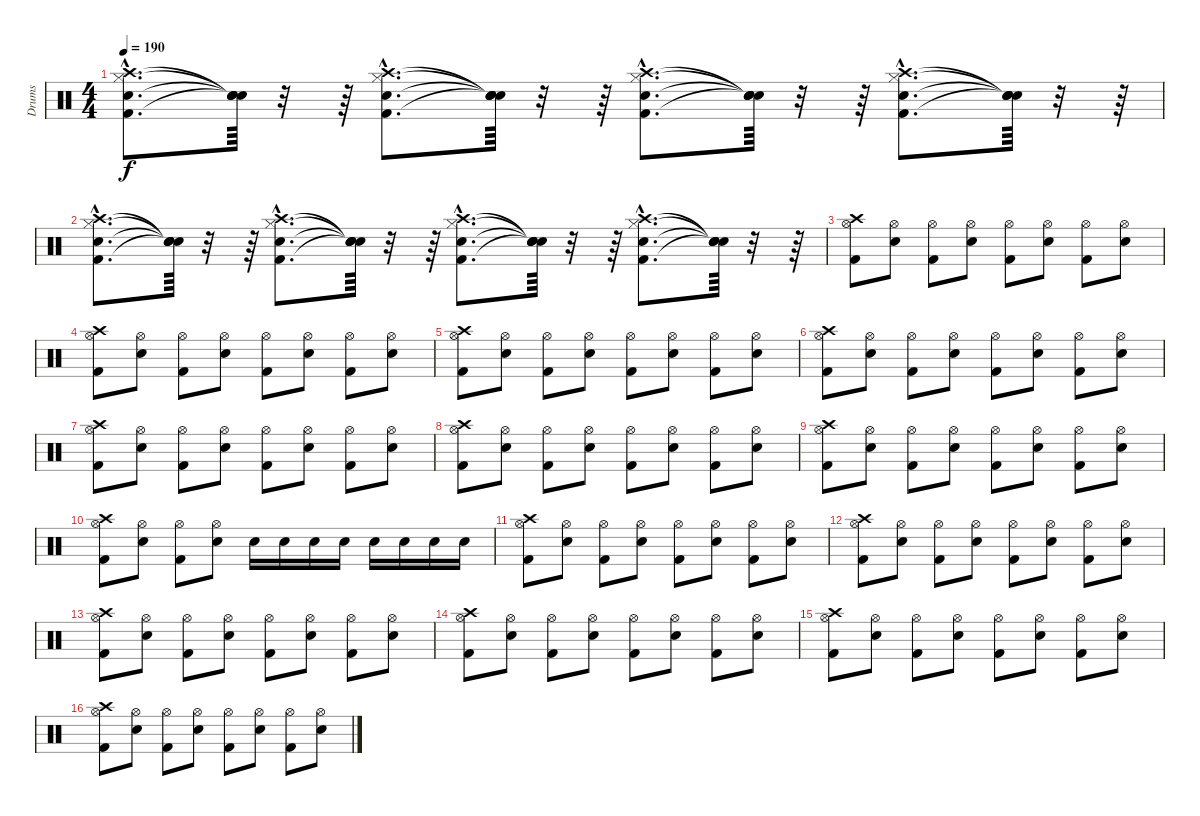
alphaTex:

\track ("Drums" "Drums") {instrument percussion}
\staff {score}
\articulation defaults
\ts (4 4)
\tempo 190
\clef neutral
\ks c
("Kick (hit) 2"{hac} "Snare (hit) 2"{hac} "Hi-Hat (closed)"{hac} "Crash high (hit)"{hac}).8{d dy f} ("Snare (hit)"{t} "Snare (hit)"{t} "Snare (hit)"{t} "Snare (hit)"{t}).64 r.32 r.64 ("Kick (hit) 2"{hac} "Snare (hit) 2"{hac} "Hi-Hat (closed)"{hac} "Crash high (hit)"{hac}).8{d} ("Snare (hit)"{t} "Snare (hit)"{t} "Snare (hit)"{t} "Snare (hit)"{t}).64 r.32 r.64 ("Kick (hit) 2"{hac} "Snare (hit) 2"{hac} "Hi-Hat (closed)"{hac} "Crash high (hit)"{hac}).8{d} ("Snare (hit)"{t} "Snare (hit)"{t} "Snare (hit)"{t} "Snare (hit)"{t}).64 r.32 r.64 ("Kick (hit) 2"{hac} "Snare (hit) 2"{hac} "Hi-Hat (closed)"{hac} "Crash high (hit)"{hac}).8{d} ("Snare (hit)"{t} "Snare (hit)"{t} "Snare (hit)"{t} "Snare (hit)"{t}).64 r.32 r.64 |
("Kick (hit) 2"{hac} "Snare (hit) 2"{hac} "Hi-Hat (closed)"{hac} "Crash high (hit)"{hac}).8{d} ("Snare (hit)"{t} "Snare (hit)"{t} "Snare (hit)"{t} "Snare (hit)"{t}).64 r.32 r.64 ("Kick (hit) 2"{hac} "Snare (hit) 2"{hac} "Hi-Hat (closed)"{hac} "Crash high (hit)"{hac}).8{d} ("Snare (hit)"{t} "Snare (hit)"{t} "Snare (hit)"{t} "Snare (hit)"{t}).64 r.32 r.64 ("Kick (hit) 2"{hac} "Snare (hit) 2"{hac} "Hi-Hat (closed)"{hac} "Crash high (hit)"{hac}).8{d} ("Snare (hit)"{t} "Snare (hit)"{t} "Snare (hit)"{t} "Snare (hit)"{t}).64 r.32 r.64 ("Kick (hit) 2"{hac} "Snare (hit) 2"{hac} "Hi-Hat (closed)"{hac} "Crash high (hit)"{hac}).8{d} ("Snare (hit)"{t} "Snare (hit)"{t} "Snare (hit)"{t} "Snare (hit)"{t}).64 r.32 r.64 |
("Kick (hit) 2" "Hi-Hat (open)" "Crash high (hit)").8 ("Snare (hit) 2" "Hi-Hat (open)").8 ("Kick (hit) 2" "Hi-Hat (open)").8 ("Snare (hit) 2" "Hi-Hat (open)").8 ("Kick (hit) 2" "Hi-Hat (open)").8 ("Snare (hit) 2" "Hi-Hat (open)").8 ("Kick (hit) 2" "Hi-Hat (open)").8 ("Snare (hit) 2" "Hi-Hat (open)").8 |
("Kick (hit) 2" "Hi-Hat (open)" "Crash high (hit)").8 ("Snare (hit) 2" "Hi-Hat (open)").8 ("Kick (hit) 2" "Hi-Hat (open)").8 ("Snare (hit) 2" "Hi-Hat (open)").8 ("Kick (hit) 2" "Hi-Hat (open)").8 ("Snare (hit) 2" "Hi-Hat (open)").8 ("Kick (hit) 2" "Hi-Hat (open)").8 ("Snare (hit) 2" "Hi-Hat (open)").8 |
("Kick (hit) 2" "Hi-Hat (open)" "Crash high (hit)").8 ("Snare (hit) 2" "Hi-Hat (open)").8 ("Kick (hit) 2" "Hi-Hat (open)").8 ("Snare (hit) 2" "Hi-Hat (open)").8 ("Kick (hit) 2" "Hi-Hat (open)").8 ("Snare (hit) 2" "Hi-Hat (open)").8 ("Kick (hit) 2" "Hi-Hat (open)").8 ("Snare (hit) 2" "Hi-Hat (open)").8 |
("Kick (hit) 2" "Hi-Hat (open)" "Crash high (hit)").8 ("Snare (hit) 2" "Hi-Hat (open)").8 ("Kick (hit) 2" "Hi-Hat (open)").8 ("Snare (hit) 2" "Hi-Hat (open)").8 ("Kick (hit) 2" "Hi-Hat (open)").8 ("Snare (hit) 2" "Hi-Hat (open)").8 ("Kick (hit) 2" "Hi-Hat (open)").8 ("Snare (hit) 2" "Hi-Hat (open)").8 |
("Kick (hit) 2" "Hi-Hat (open)" "Crash high (hit)").8 ("Snare (hit) 2" "Hi-Hat (open)").8 ("Kick (hit) 2" "Hi-Hat (open)").8 ("Snare (hit) 2" "Hi-Hat (open)").8 ("Kick (hit) 2" "Hi-Hat (open)").8 ("Snare (hit) 2" "Hi-Hat (open)").8 ("Kick (hit) 2" "Hi-Hat (open)").8 ("Snare (hit) 2" "Hi-Hat (open)").8 |
("Kick (hit) 2" "Hi-Hat (open)" "Crash high (hit)").8 ("Snare (hit) 2" "Hi-Hat (open)").8 ("Kick (hit) 2" "Hi-Hat (open)").8 ("Snare (hit) 2" "Hi-Hat (open)").8 ("Kick (hit) 2" "Hi-Hat (open)").8 ("Snare (hit) 2" "Hi-Hat (open)").8 ("Kick (hit) 2" "Hi-Hat (open)").8 ("Snare (hit) 2" "Hi-Hat (open)").8 |
("Kick (hit) 2" "Hi-Hat (open)" "Crash high (hit)").8 ("Snare (hit) 2" "Hi-Hat (open)").8 ("Kick (hit) 2" "Hi-Hat (open)").8 ("Snare (hit) 2" "Hi-Hat (open)").8 ("Kick (hit) 2" "Hi-Hat (open)").8 ("Snare (hit) 2" "Hi-Hat (open)").8 ("Kick (hit) 2" "Hi-Hat (open)").8 ("Snare (hit) 2" "Hi-Hat (open)").8 |
("Kick (hit) 2" "Hi-Hat (open)" "Crash high (hit)").8 ("Snare (hit) 2" "Hi-Hat (open)").8 ("Kick (hit) 2" "Hi-Hat (open)").8 ("Snare (hit) 2" "Hi-Hat (open)").8 "Snare (hit) 2".16 "Snare (hit) 2".16 "Snare (hit) 2".16 "Snare (hit) 2".16 "Snare (hit) 2".16 "Snare (hit) 2".16 "Snare (hit) 2".16 "Snare (hit) 2".16 |
("Kick (hit) 2" "Hi-Hat (open)" "Crash high (hit)").8 ("Snare (hit) 2" "Hi-Hat (open)").8 ("Kick (hit) 2" "Hi-Hat (open)").8 ("Snare (hit) 2" "Hi-Hat (open)").8 ("Kick (hit) 2" "Hi-Hat (open)").8 ("Snare (hit) 2" "Hi-Hat (open)").8 ("Kick (hit) 2" "Hi-Hat (open)").8 ("Snare (hit) 2" "Hi-Hat (open)").8 |
("Kick (hit) 2" "Hi-Hat (open)" "Crash high (hit)").8 ("Snare (hit) 2" "Hi-Hat (open)").8 ("Kick (hit) 2" "Hi-Hat (open)").8 ("Snare (hit) 2" "Hi-Hat (open)").8 ("Kick (hit) 2" "Hi-Hat (open)").8 ("Snare (hit) 2" "Hi-Hat (open)").8 ("Kick (hit) 2" "Hi-Hat (open)").8 ("Snare (hit) 2" "Hi-Hat (open)").8 |
("Kick (hit) 2" "Hi-Hat (open)" "Crash high (hit)").8 ("Snare (hit) 2" "Hi-Hat (open)").8 ("Kick (hit) 2" "Hi-Hat (open)").8 ("Snare (hit) 2" "Hi-Hat (open)").8 ("Kick (hit) 2" "Hi-Hat (open)").8 ("Snare (hit) 2" "Hi-Hat (open)").8 ("Kick (hit) 2" "Hi-Hat (open)").8 ("Snare (hit) 2" "Hi-Hat (open)").8 |
("Kick (hit) 2" "Hi-Hat (open)" "Crash high (hit)").8 ("Snare (hit) 2" "Hi-Hat (open)").8 ("Kick (hit) 2" "Hi-Hat (open)").8 ("Snare (hit) 2" "Hi-Hat (open)").8 ("Kick (hit) 2" "Hi-Hat (open)").8 ("Snare (hit) 2" "Hi-Hat (open)").8 ("Kick (hit) 2" "Hi-Hat (open)").8 ("Snare (hit) 2" "Hi-Hat (open)").8 |
("Kick (hit) 2" "Hi-Hat (open)" "Crash high (hit)").8 ("Snare (hit) 2" "Hi-Hat (open)").8 ("Kick (hit) 2" "Hi-Hat (open)").8 ("Snare (hit) 2" "Hi-Hat (open)").8 ("Kick (hit) 2" "Hi-Hat (open)").8 ("Snare (hit) 2" "Hi-Hat (open)").8 ("Kick (hit) 2" "Hi-Hat (open)").8 ("Snare (hit) 2" "Hi-Hat (open)").8 |
("Kick (hit) 2" "Hi-Hat (open)" "Crash high (hit)").8 ("Snare (hit) 2" "Hi-Hat (open)").8 ("Kick (hit) 2" "Hi-Hat (open)").8 ("Snare (hit) 2" "Hi-Hat (open)").8 ("Kick (hit) 2" "Hi-Hat (open)").8 ("Snare (hit) 2" "Hi-Hat (open)").8 ("Kick (hit) 2" "Hi-Hat (open)").8 ("Snare (hit) 2" "Hi-Hat (open)").8
